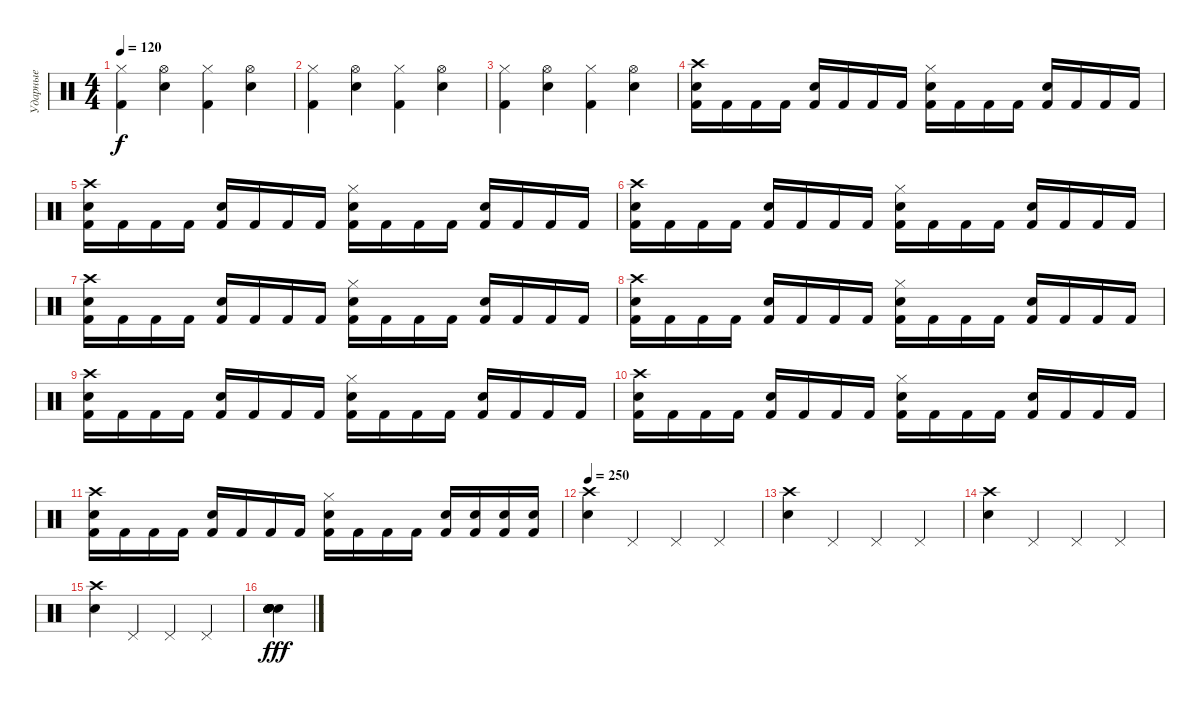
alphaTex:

\track ("Ударные" "Ударные") {instrument percussion}
\staff {score}
\articulation defaults
\ts (4 4)
\tempo 120
\clef neutral
\ks c
("Hi-Hat (closed)" "Kick (hit) 2").4{dy f} ("Hi-Hat (open)" "Snare (hit) 2").4 ("Hi-Hat (closed)" "Kick (hit) 2").4 ("Hi-Hat (open)" "Snare (hit) 2").4 |
("Hi-Hat (closed)" "Kick (hit) 2").4 ("Hi-Hat (open)" "Snare (hit) 2").4 ("Hi-Hat (closed)" "Kick (hit) 2").4 ("Hi-Hat (open)" "Snare (hit) 2").4 |
("Hi-Hat (closed)" "Kick (hit) 2").4 ("Hi-Hat (open)" "Snare (hit) 2").4 ("Hi-Hat (closed)" "Kick (hit) 2").4 ("Hi-Hat (open)" "Snare (hit) 2").4 |
("Crash high (hit)" "Snare (hit) 2" "Kick (hit) 2").16 "Kick (hit) 2".16 "Kick (hit) 2".16 "Kick (hit) 2".16 ("Snare (hit) 2" "Kick (hit) 2").16 "Kick (hit) 2".16 "Kick (hit) 2".16 "Kick (hit) 2".16 ("Hi-Hat (closed)" "Snare (hit) 2" "Kick (hit) 2").16 "Kick (hit) 2".16 "Kick (hit) 2".16 "Kick (hit) 2".16 ("Snare (hit) 2" "Kick (hit) 2").16 "Kick (hit) 2".16 "Kick (hit) 2".16 "Kick (hit) 2".16 |
("Crash high (hit)" "Snare (hit) 2" "Kick (hit) 2").16 "Kick (hit) 2".16 "Kick (hit) 2".16 "Kick (hit) 2".16 ("Snare (hit) 2" "Kick (hit) 2").16 "Kick (hit) 2".16 "Kick (hit) 2".16 "Kick (hit) 2".16 ("Hi-Hat (closed)" "Snare (hit) 2" "Kick (hit) 2").16 "Kick (hit) 2".16 "Kick (hit) 2".16 "Kick (hit) 2".16 ("Snare (hit) 2" "Kick (hit) 2").16 "Kick (hit) 2".16 "Kick (hit) 2".16 "Kick (hit) 2".16 |
("Crash high (hit)" "Snare (hit) 2" "Kick (hit) 2").16 "Kick (hit) 2".16 "Kick (hit) 2".16 "Kick (hit) 2".16 ("Snare (hit) 2" "Kick (hit) 2").16 "Kick (hit) 2".16 "Kick (hit) 2".16 "Kick (hit) 2".16 ("Hi-Hat (closed)" "Snare (hit) 2" "Kick (hit) 2").16 "Kick (hit) 2".16 "Kick (hit) 2".16 "Kick (hit) 2".16 ("Snare (hit) 2" "Kick (hit) 2").16 "Kick (hit) 2".16 "Kick (hit) 2".16 "Kick (hit) 2".16 |
("Crash high (hit)" "Snare (hit) 2" "Kick (hit) 2").16 "Kick (hit) 2".16 "Kick (hit) 2".16 "Kick (hit) 2".16 ("Snare (hit) 2" "Kick (hit) 2").16 "Kick (hit) 2".16 "Kick (hit) 2".16 "Kick (hit) 2".16 ("Hi-Hat (closed)" "Snare (hit) 2" "Kick (hit) 2").16 "Kick (hit) 2".16 "Kick (hit) 2".16 "Kick (hit) 2".16 ("Snare (hit) 2" "Kick (hit) 2").16 "Kick (hit) 2".16 "Kick (hit) 2".16 "Kick (hit) 2".16 |
("Crash high (hit)" "Snare (hit) 2" "Kick (hit) 2").16 "Kick (hit) 2".16 "Kick (hit) 2".16 "Kick (hit) 2".16 ("Snare (hit) 2" "Kick (hit) 2").16 "Kick (hit) 2".16 "Kick (hit) 2".16 "Kick (hit) 2".16 ("Hi-Hat (closed)" "Snare (hit) 2" "Kick (hit) 2").16 "Kick (hit) 2".16 "Kick (hit) 2".16 "Kick (hit) 2".16 ("Snare (hit) 2" "Kick (hit) 2").16 "Kick (hit) 2".16 "Kick (hit) 2".16 "Kick (hit) 2".16 |
("Crash high (hit)" "Snare (hit) 2" "Kick (hit) 2").16 "Kick (hit) 2".16 "Kick (hit) 2".16 "Kick (hit) 2".16 ("Snare (hit) 2" "Kick (hit) 2").16 "Kick (hit) 2".16 "Kick (hit) 2".16 "Kick (hit) 2".16 ("Hi-Hat (closed)" "Snare (hit) 2" "Kick (hit) 2").16 "Kick (hit) 2".16 "Kick (hit) 2".16 "Kick (hit) 2".16 ("Snare (hit) 2" "Kick (hit) 2").16 "Kick (hit) 2".16 "Kick (hit) 2".16 "Kick (hit) 2".16 |
("Crash high (hit)" "Snare (hit) 2" "Kick (hit) 2").16 "Kick (hit) 2".16 "Kick (hit) 2".16 "Kick (hit) 2".16 ("Snare (hit) 2" "Kick (hit) 2").16 "Kick (hit) 2".16 "Kick (hit) 2".16 "Kick (hit) 2".16 ("Hi-Hat (closed)" "Snare (hit) 2" "Kick (hit) 2").16 "Kick (hit) 2".16 "Kick (hit) 2".16 "Kick (hit) 2".16 ("Snare (hit) 2" "Kick (hit) 2").16 "Kick (hit) 2".16 "Kick (hit) 2".16 "Kick (hit) 2".16 |
("Crash high (hit)" "Snare (hit) 2" "Kick (hit) 2").16 "Kick (hit) 2".16 "Kick (hit) 2".16 "Kick (hit) 2".16 ("Snare (hit) 2" "Kick (hit) 2").16 "Kick (hit) 2".16 "Kick (hit) 2".16 "Kick (hit) 2".16 ("Hi-Hat (closed)" "Snare (hit) 2" "Kick (hit) 2").16 "Kick (hit) 2".16 "Kick (hit) 2".16 "Kick (hit) 2".16 ("Snare (hit) 2" "Kick (hit) 2").16 ("Snare (hit) 2" "Kick (hit) 2").16 ("Snare (hit) 2" "Kick (hit) 2").16 ("Snare (hit) 2" "Kick (hit) 2").16 |
\tempo 250
("Crash high (hit)" "Snare (hit) 2").4 "Pedal Hi-Hat (hit)".4 "Pedal Hi-Hat (hit)".4 "Pedal Hi-Hat (hit)".4 |
("Crash high (hit)" "Snare (hit) 2").4 "Pedal Hi-Hat (hit)".4 "Pedal Hi-Hat (hit)".4 "Pedal Hi-Hat (hit)".4 |
("Crash high (hit)" "Snare (hit) 2").4 "Pedal Hi-Hat (hit)".4 "Pedal Hi-Hat (hit)".4 "Pedal Hi-Hat (hit)".4 |
("Crash high (hit)" "Snare (hit) 2").4 "Pedal Hi-Hat (hit)".4 "Pedal Hi-Hat (hit)".4 "Pedal Hi-Hat (hit)".4 |
("Snare (hit) 2" "Snare (hit) 2" "Snare (hit) 2" "Snare (hit) 2" "Snare (hit) 2" "Snare (hit) 2").4{dy fff}
